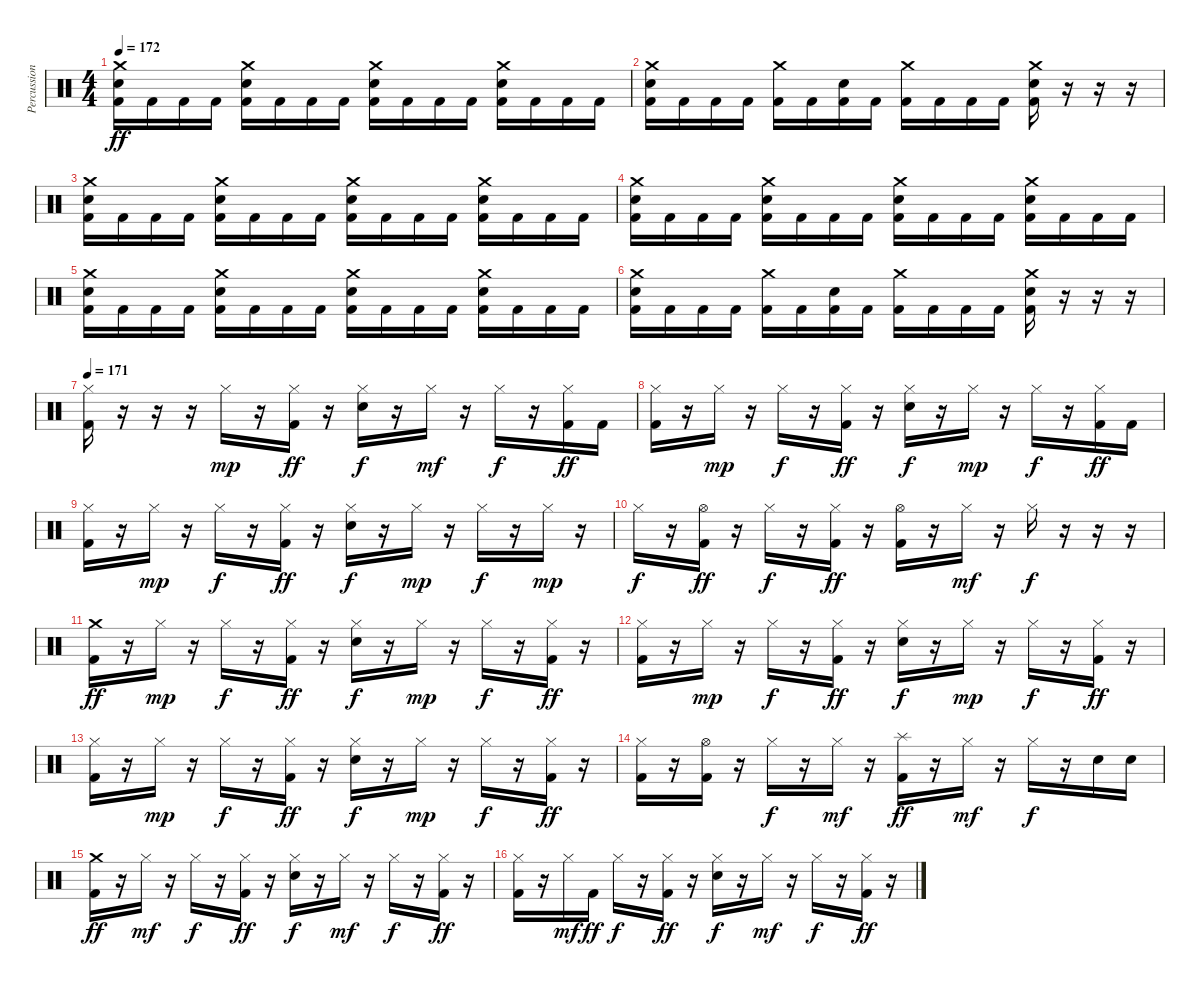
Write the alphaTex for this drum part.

\track ("Percussion" "Percussion") {instrument percussion}
\staff {score}
\articulation defaults
\ts (4 4)
\tempo 172
\clef neutral
\ks c
("Crash medium (hit)" "Electric Snare (hit)" "Kick (hit) 2").16{dy ff} "Kick (hit) 2".16 "Kick (hit) 2".16 "Kick (hit) 2".16 ("Crash medium (hit)" "Electric Snare (hit)" "Kick (hit) 2").16 "Kick (hit) 2".16 "Kick (hit) 2".16 "Kick (hit) 2".16 ("Crash medium (hit)" "Electric Snare (hit)" "Kick (hit) 2").16 "Kick (hit) 2".16 "Kick (hit) 2".16 "Kick (hit) 2".16 ("Crash medium (hit)" "Electric Snare (hit)" "Kick (hit) 2").16 "Kick (hit) 2".16 "Kick (hit) 2".16 "Kick (hit) 2".16 |
("Crash medium (hit)" "Electric Snare (hit)" "Kick (hit) 2").16 "Kick (hit) 2".16 "Kick (hit) 2".16 "Kick (hit) 2".16 ("Crash medium (hit)" "Kick (hit) 2").16 "Kick (hit) 2".16 ("Electric Snare (hit)" "Kick (hit) 2").16 "Kick (hit) 2".16 ("Crash medium (hit)" "Kick (hit) 2").16 "Kick (hit) 2".16 "Kick (hit) 2".16 "Kick (hit) 2".16 ("Crash medium (hit)" "Electric Snare (hit)" "Kick (hit) 2").16 r.16 r.16 r.16 |
("Crash medium (hit)" "Electric Snare (hit)" "Kick (hit) 2").16 "Kick (hit) 2".16 "Kick (hit) 2".16 "Kick (hit) 2".16 ("Crash medium (hit)" "Electric Snare (hit)" "Kick (hit) 2").16 "Kick (hit) 2".16 "Kick (hit) 2".16 "Kick (hit) 2".16 ("Crash medium (hit)" "Electric Snare (hit)" "Kick (hit) 2").16 "Kick (hit) 2".16 "Kick (hit) 2".16 "Kick (hit) 2".16 ("Crash medium (hit)" "Electric Snare (hit)" "Kick (hit) 2").16 "Kick (hit) 2".16 "Kick (hit) 2".16 "Kick (hit) 2".16 |
("Crash medium (hit)" "Electric Snare (hit)" "Kick (hit) 2").16 "Kick (hit) 2".16 "Kick (hit) 2".16 "Kick (hit) 2".16 ("Crash medium (hit)" "Electric Snare (hit)" "Kick (hit) 2").16 "Kick (hit) 2".16 "Kick (hit) 2".16 "Kick (hit) 2".16 ("Crash medium (hit)" "Electric Snare (hit)" "Kick (hit) 2").16 "Kick (hit) 2".16 "Kick (hit) 2".16 "Kick (hit) 2".16 ("Crash medium (hit)" "Electric Snare (hit)" "Kick (hit) 2").16 "Kick (hit) 2".16 "Kick (hit) 2".16 "Kick (hit) 2".16 |
("Crash medium (hit)" "Electric Snare (hit)" "Kick (hit) 2").16 "Kick (hit) 2".16 "Kick (hit) 2".16 "Kick (hit) 2".16 ("Crash medium (hit)" "Electric Snare (hit)" "Kick (hit) 2").16 "Kick (hit) 2".16 "Kick (hit) 2".16 "Kick (hit) 2".16 ("Crash medium (hit)" "Electric Snare (hit)" "Kick (hit) 2").16 "Kick (hit) 2".16 "Kick (hit) 2".16 "Kick (hit) 2".16 ("Crash medium (hit)" "Electric Snare (hit)" "Kick (hit) 2").16 "Kick (hit) 2".16 "Kick (hit) 2".16 "Kick (hit) 2".16 |
("Crash medium (hit)" "Electric Snare (hit)" "Kick (hit) 2").16 "Kick (hit) 2".16 "Kick (hit) 2".16 "Kick (hit) 2".16 ("Crash medium (hit)" "Kick (hit) 2").16 "Kick (hit) 2".16 ("Electric Snare (hit)" "Kick (hit) 2").16 "Kick (hit) 2".16 ("Crash medium (hit)" "Kick (hit) 2").16 "Kick (hit) 2".16 "Kick (hit) 2".16 "Kick (hit) 2".16 ("Crash medium (hit)" "Electric Snare (hit)" "Kick (hit) 2").16 r.16 r.16 r.16 |
\tempo 171
("Hi-Hat (closed)" "Kick (hit) 2").16 r.16 r.16 r.16 "Hi-Hat (closed)".16{dy mp} r.16 ("Hi-Hat (closed)" "Kick (hit) 2").16{dy ff} r.16 ("Hi-Hat (closed)" "Electric Snare (hit)").16{dy f} r.16 "Hi-Hat (closed)".16{dy mf} r.16 "Hi-Hat (closed)".16{dy f} r.16 ("Hi-Hat (closed)" "Kick (hit) 2").16{dy ff} "Kick (hit) 2".16 |
("Hi-Hat (closed)" "Kick (hit) 2").16 r.16 "Hi-Hat (closed)".16{dy mp} r.16 "Hi-Hat (closed)".16{dy f} r.16 ("Hi-Hat (closed)" "Kick (hit) 2").16{dy ff} r.16 ("Hi-Hat (closed)" "Electric Snare (hit)").16{dy f} r.16 "Hi-Hat (closed)".16{dy mp} r.16 "Hi-Hat (closed)".16{dy f} r.16 ("Hi-Hat (closed)" "Kick (hit) 2").16{dy ff} "Kick (hit) 2".16 |
("Hi-Hat (closed)" "Kick (hit) 2").16 r.16 "Hi-Hat (closed)".16{dy mp} r.16 "Hi-Hat (closed)".16{dy f} r.16 ("Hi-Hat (closed)" "Kick (hit) 2").16{dy ff} r.16 ("Hi-Hat (closed)" "Electric Snare (hit)").16{dy f} r.16 "Hi-Hat (closed)".16{dy mp} r.16 "Hi-Hat (closed)".16{dy f} r.16 "Hi-Hat (closed)".16{dy mp} r.16 |
"Hi-Hat (closed)".16{dy f} r.16 ("Hi-Hat (open)" "Kick (hit) 2").16{dy ff} r.16 "Hi-Hat (closed)".16{dy f} r.16 ("Hi-Hat (closed)" "Kick (hit) 2").16{dy ff} r.16 ("Hi-Hat (open)" "Kick (hit) 2").16 r.16 "Hi-Hat (closed)".16{dy mf} r.16 "Hi-Hat (closed)".16{dy f} r.16 r.16 r.16 |
("Crash medium (hit)" "Kick (hit) 2").16{dy ff} r.16 "Hi-Hat (closed)".16{dy mp} r.16 "Hi-Hat (closed)".16{dy f} r.16 ("Hi-Hat (closed)" "Kick (hit) 2").16{dy ff} r.16 ("Hi-Hat (closed)" "Electric Snare (hit)").16{dy f} r.16 "Hi-Hat (closed)".16{dy mp} r.16 "Hi-Hat (closed)".16{dy f} r.16 ("Hi-Hat (closed)" "Kick (hit) 2").16{dy ff} r.16 |
("Hi-Hat (closed)" "Kick (hit) 2").16 r.16 "Hi-Hat (closed)".16{dy mp} r.16 "Hi-Hat (closed)".16{dy f} r.16 ("Hi-Hat (closed)" "Kick (hit) 2").16{dy ff} r.16 ("Hi-Hat (closed)" "Electric Snare (hit)").16{dy f} r.16 "Hi-Hat (closed)".16{dy mp} r.16 "Hi-Hat (closed)".16{dy f} r.16 ("Hi-Hat (closed)" "Kick (hit) 2").16{dy ff} r.16 |
("Hi-Hat (closed)" "Kick (hit) 2").16 r.16 "Hi-Hat (closed)".16{dy mp} r.16 "Hi-Hat (closed)".16{dy f} r.16 ("Hi-Hat (closed)" "Kick (hit) 2").16{dy ff} r.16 ("Hi-Hat (closed)" "Electric Snare (hit)").16{dy f} r.16 "Hi-Hat (closed)".16{dy mp} r.16 "Hi-Hat (closed)".16{dy f} r.16 ("Hi-Hat (closed)" "Kick (hit) 2").16{dy ff} r.16 |
("Hi-Hat (closed)" "Kick (hit) 2").16 r.16 ("Hi-Hat (open)" "Kick (hit) 2").16 r.16 "Hi-Hat (closed)".16{dy f} r.16 "Hi-Hat (closed)".16{dy mf} r.16 ("Splash (hit)" "Kick (hit) 2").16{dy ff} r.16 "Hi-Hat (closed)".16{dy mf} r.16 "Hi-Hat (closed)".16{dy f} r.16 "Electric Snare (hit)".16 "Electric Snare (hit)".16 |
("Crash medium (hit)" "Kick (hit) 2").16{dy ff} r.16 "Hi-Hat (closed)".16{dy mf} r.16 "Hi-Hat (closed)".16{dy f} r.16 ("Hi-Hat (closed)" "Kick (hit) 2").16{dy ff} r.16 ("Hi-Hat (closed)" "Electric Snare (hit)").16{dy f} r.16 "Hi-Hat (closed)".16{dy mf} r.16 "Hi-Hat (closed)".16{dy f} r.16 ("Hi-Hat (closed)" "Kick (hit) 2").16{dy ff} r.16 |
("Hi-Hat (closed)" "Kick (hit) 2").16 r.16 "Hi-Hat (closed)".16{dy mf} "Kick (hit) 2".16{dy ff} "Hi-Hat (closed)".16{dy f} r.16 ("Hi-Hat (closed)" "Kick (hit) 2").16{dy ff} r.16 ("Hi-Hat (closed)" "Electric Snare (hit)").16{dy f} r.16 "Hi-Hat (closed)".16{dy mf} r.16 "Hi-Hat (closed)".16{dy f} r.16 ("Hi-Hat (closed)" "Kick (hit) 2").16{dy ff} r.16
